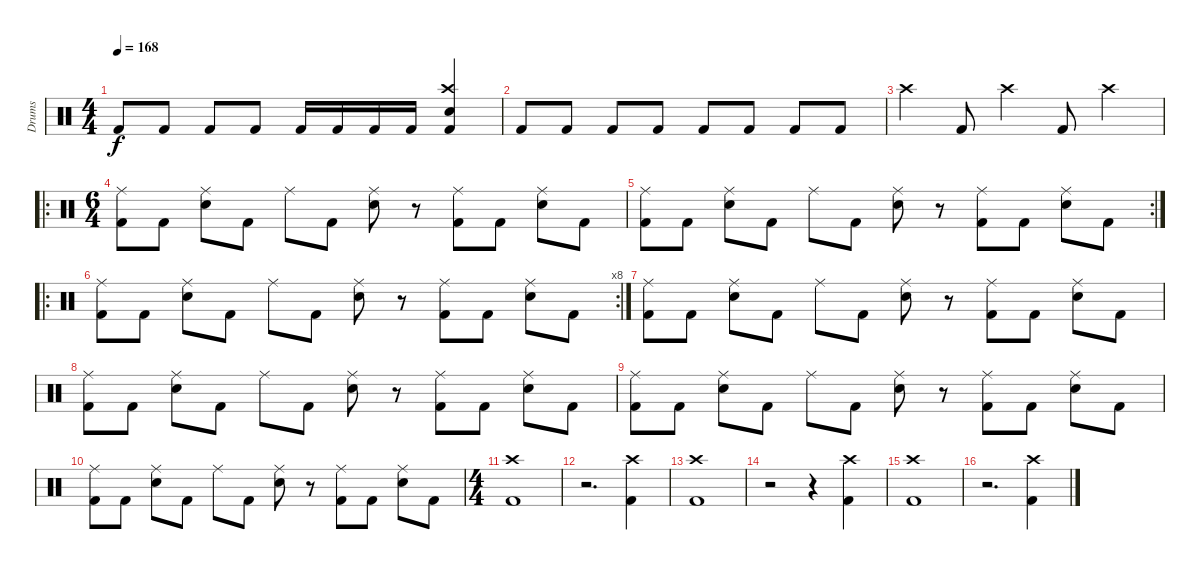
\track ("Drums" "Drums") {instrument percussion}
\staff {score}
\articulation defaults
\ts (4 4)
\tempo 168
\clef neutral
\ks c "Kick (hit) 2".8{dy f} "Kick (hit) 2".8 "Kick (hit) 2".8 "Kick (hit) 2".8 "Kick (hit) 2".16 "Kick (hit) 2".16 "Kick (hit) 2".16 "Kick (hit) 2".16
("Crash high (hit)" "Snare (hit) 2" "Kick (hit) 2").4 |
"Kick (hit) 2".8 "Kick (hit) 2".8 "Kick (hit) 2".8 "Kick (hit) 2".8 "Kick (hit) 2".8 "Kick (hit) 2".8 "Kick (hit) 2".8 "Kick (hit) 2".8 |
"Crash high (hit)".4 "Kick (hit) 2".8 "Crash high (hit)".4 "Kick (hit) 2".8 "Crash high (hit)".4 |
\ro
\ts (6 4)
("Ride (middle)" "Kick (hit) 2").8 "Kick (hit) 2".8 ("Ride (middle)" "Snare (hit) 2").8 "Kick (hit) 2".8 "Ride (middle)".8 "Kick (hit) 2".8 ("Ride (middle)" "Snare (hit) 2").8 r.8 ("Ride (middle)" "Kick (hit) 2").8 "Kick (hit) 2".8 ("Ride (middle)" "Snare (hit) 2").8 "Kick (hit) 2".8 |
\rc 2
("Ride (middle)" "Kick (hit) 2").8 "Kick (hit) 2".8 ("Ride (middle)" "Snare (hit) 2").8 "Kick (hit) 2".8 "Ride (middle)".8 "Kick (hit) 2".8 ("Ride (middle)" "Snare (hit) 2").8 r.8 ("Ride (middle)" "Kick (hit) 2").8 "Kick (hit) 2".8 ("Ride (middle)" "Snare (hit) 2").8 "Kick (hit) 2".8 |
\ro
\rc 8
("Ride (middle)" "Kick (hit) 2").8 "Kick (hit) 2".8 ("Ride (middle)" "Snare (hit) 2").8 "Kick (hit) 2".8 "Ride (middle)".8 "Kick (hit) 2".8 ("Ride (middle)" "Snare (hit) 2").8 r.8 ("Ride (middle)" "Kick (hit) 2").8 "Kick (hit) 2".8 ("Ride (middle)" "Snare (hit) 2").8 "Kick (hit) 2".8 |
("Ride (middle)" "Kick (hit) 2").8 "Kick (hit) 2".8 ("Ride (middle)" "Snare (hit) 2").8 "Kick (hit) 2".8 "Ride (middle)".8 "Kick (hit) 2".8 ("Ride (middle)" "Snare (hit) 2").8 r.8 ("Ride (middle)" "Kick (hit) 2").8 "Kick (hit) 2".8 ("Ride (middle)" "Snare (hit) 2").8 "Kick (hit) 2".8 |
("Ride (middle)" "Kick (hit) 2").8 "Kick (hit) 2".8 ("Ride (middle)" "Snare (hit) 2").8 "Kick (hit) 2".8 "Ride (middle)".8 "Kick (hit) 2".8 ("Ride (middle)" "Snare (hit) 2").8 r.8 ("Ride (middle)" "Kick (hit) 2").8 "Kick (hit) 2".8 ("Ride (middle)" "Snare (hit) 2").8 "Kick (hit) 2".8 |
("Ride (middle)" "Kick (hit) 2").8 "Kick (hit) 2".8 ("Ride (middle)" "Snare (hit) 2").8 "Kick (hit) 2".8 "Ride (middle)".8 "Kick (hit) 2".8 ("Ride (middle)" "Snare (hit) 2").8 r.8 ("Ride (middle)" "Kick (hit) 2").8 "Kick (hit) 2".8 ("Ride (middle)" "Snare (hit) 2").8 "Kick (hit) 2".8 |
("Ride (middle)" "Kick (hit) 2").8 "Kick (hit) 2".8 ("Ride (middle)" "Snare (hit) 2").8 "Kick (hit) 2".8 "Ride (middle)".8 "Kick (hit) 2".8 ("Ride (middle)" "Snare (hit) 2").8 r.8 ("Ride (middle)" "Kick (hit) 2").8 "Kick (hit) 2".8 ("Ride (middle)" "Snare (hit) 2").8 "Kick (hit) 2".8 |
\ts (4 4)
("Crash high (hit)" "Kick (hit) 2").1 |
r.2{d} ("Crash high (hit)" "Kick (hit) 2").4 |
("Crash high (hit)" "Kick (hit) 2").1 |
r.2 r.4 ("Crash high (hit)" "Kick (hit) 2").4 |
("Crash high (hit)" "Kick (hit) 2").1 |
r.2{d} ("Crash high (hit)" "Kick (hit) 2").4
